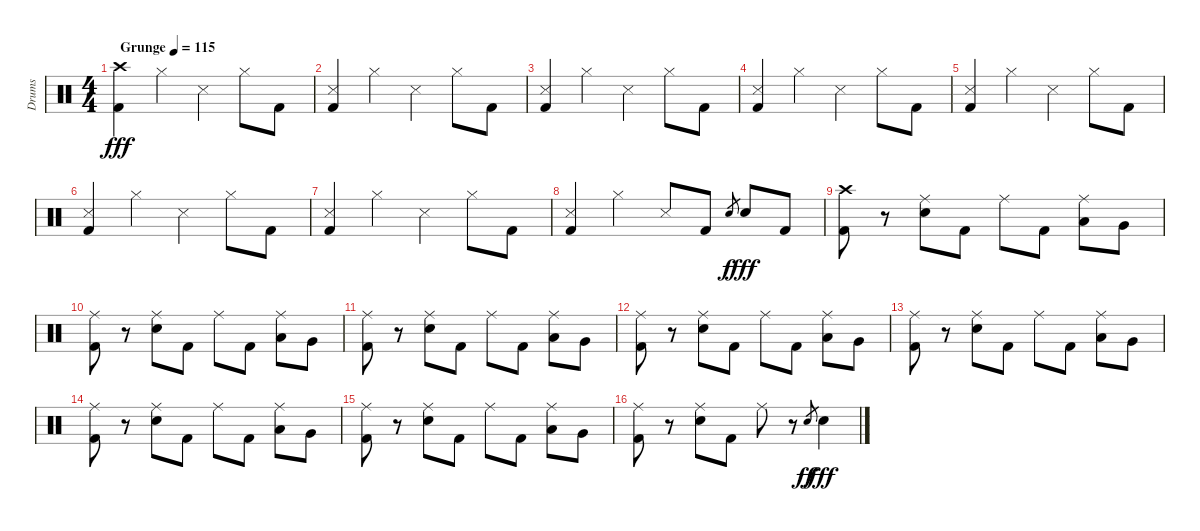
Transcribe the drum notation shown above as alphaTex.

\track ("Drums" "Drums") {instrument percussion}
\staff {score}
\articulation defaults
\ts (4 4)
\tempo (115 "Grunge")
\clef neutral
\ks c
("Crash high (hit)" "Kick (hit) 2").4{dy fff} "Hi-Hat (closed)".4 "Snare (side stick) 3".4 "Hi-Hat (closed)".8 "Kick (hit) 2".8 |
("Snare (side stick) 3" "Kick (hit) 2").4 "Hi-Hat (closed)".4 "Snare (side stick) 3".4 "Hi-Hat (closed)".8 "Kick (hit) 2".8 |
("Snare (side stick) 3" "Kick (hit) 2").4 "Hi-Hat (closed)".4 "Snare (side stick) 3".4 "Hi-Hat (closed)".8 "Kick (hit) 2".8 |
("Snare (side stick) 3" "Kick (hit) 2").4 "Hi-Hat (closed)".4 "Snare (side stick) 3".4 "Hi-Hat (closed)".8 "Kick (hit) 2".8 |
("Snare (side stick) 3" "Kick (hit) 2").4 "Hi-Hat (closed)".4 "Snare (side stick) 3".4 "Hi-Hat (closed)".8 "Kick (hit) 2".8 |
("Snare (side stick) 3" "Kick (hit) 2").4 "Hi-Hat (closed)".4 "Snare (side stick) 3".4 "Hi-Hat (closed)".8 "Kick (hit) 2".8 |
("Snare (side stick) 3" "Kick (hit) 2").4 "Hi-Hat (closed)".4 "Snare (side stick) 3".4 "Hi-Hat (closed)".8 "Kick (hit) 2".8 |
("Snare (side stick) 3" "Kick (hit) 2").4 "Hi-Hat (closed)".4 "Snare (side stick) 3".8 "Kick (hit) 2".8 "Electric Snare (hit)".8{gr dy f} "Electric Snare (hit)".8{dy fff} "Kick (hit) 2".8 |
("Crash high (hit)" "Kick (hit) 2").8 r.8 ("Ride (middle)" "Electric Snare (hit)").8 "Kick (hit) 2".8 "Ride (middle)".8 "Kick (hit) 2".8 ("Ride (middle)" "Low Tom (hit)").8 "Very Low Tom (hit)".8 |
("Ride (middle)" "Kick (hit) 2").8 r.8 ("Ride (middle)" "Electric Snare (hit)").8 "Kick (hit) 2".8 "Ride (middle)".8 "Kick (hit) 2".8 ("Ride (middle)" "Low Tom (hit)").8 "Very Low Tom (hit)".8 |
("Ride (middle)" "Kick (hit) 2").8 r.8 ("Ride (middle)" "Electric Snare (hit)").8 "Kick (hit) 2".8 "Ride (middle)".8 "Kick (hit) 2".8 ("Ride (middle)" "Low Tom (hit)").8 "Very Low Tom (hit)".8 |
("Ride (middle)" "Kick (hit) 2").8 r.8 ("Ride (middle)" "Electric Snare (hit)").8 "Kick (hit) 2".8 "Ride (middle)".8 "Kick (hit) 2".8 ("Ride (middle)" "Low Tom (hit)").8 "Very Low Tom (hit)".8 |
("Ride (middle)" "Kick (hit) 2").8 r.8 ("Ride (middle)" "Electric Snare (hit)").8 "Kick (hit) 2".8 "Ride (middle)".8 "Kick (hit) 2".8 ("Ride (middle)" "Low Tom (hit)").8 "Very Low Tom (hit)".8 |
("Ride (middle)" "Kick (hit) 2").8 r.8 ("Ride (middle)" "Electric Snare (hit)").8 "Kick (hit) 2".8 "Ride (middle)".8 "Kick (hit) 2".8 ("Ride (middle)" "Low Tom (hit)").8 "Very Low Tom (hit)".8 |
("Ride (middle)" "Kick (hit) 2").8 r.8 ("Ride (middle)" "Electric Snare (hit)").8 "Kick (hit) 2".8 "Ride (middle)".8 "Kick (hit) 2".8 ("Ride (middle)" "Low Tom (hit)").8 "Very Low Tom (hit)".8 |
("Ride (middle)" "Kick (hit) 2").8 r.8 ("Ride (middle)" "Electric Snare (hit)").8 "Kick (hit) 2".8 "Ride (middle)".8 r.8 "Electric Snare (hit)".8{gr dy ff} "Electric Snare (hit)".4{dy fff}
